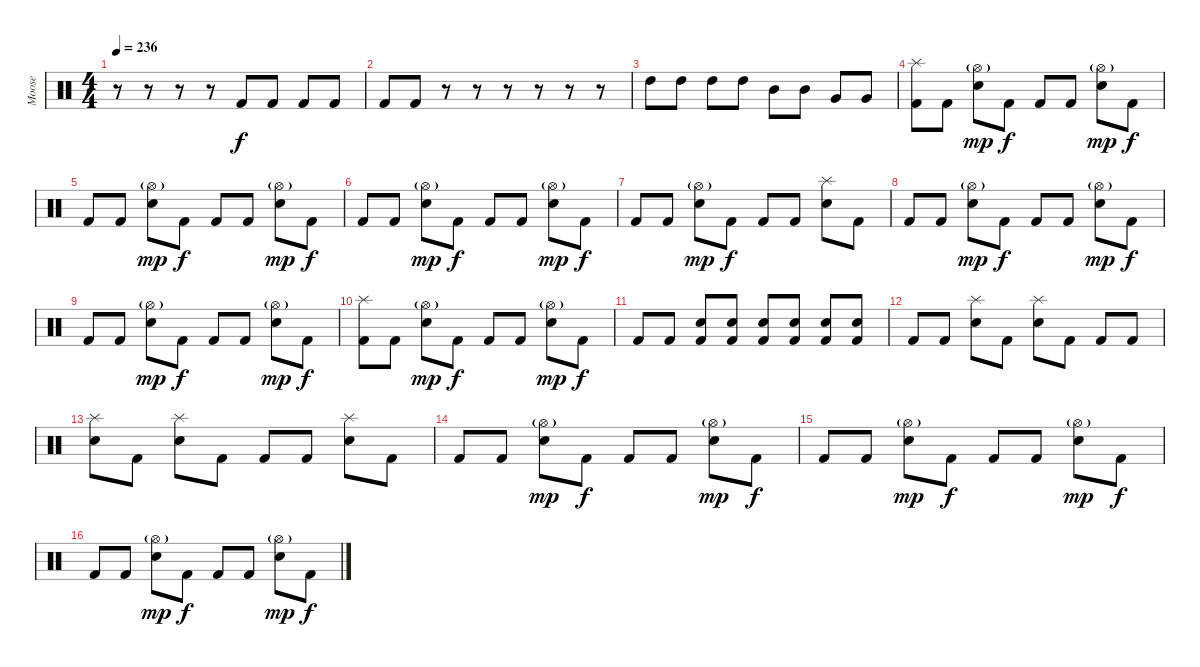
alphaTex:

\track ("Moose" "Moose") {instrument percussion}
\staff {score}
\articulation defaults
\ts (4 4)
\tempo 236
\clef neutral
\ks c
r.8{dy f} r.8 r.8 r.8 "Kick (hit) 2".8 "Kick (hit) 2".8 "Kick (hit) 2".8 "Kick (hit) 2".8 |
"Kick (hit) 2".8 "Kick (hit) 2".8 r.8 r.8 r.8 r.8 r.8 r.8 |
"High Tom (hit)".8 "High Tom (hit)".8 "High Tom (hit)".8 "High Tom (hit)".8 "Mid Tom (hit)".8 "Mid Tom (hit)".8 "Very Low Tom (hit)".8 "Very Low Tom (hit)".8 |
("Splash (hit)" "Kick (hit) 2").8 "Kick (hit) 2".8 ("Hi-Hat (open)"{g} "Electric Snare (hit)").8{dy mp} "Kick (hit) 2".8{dy f} "Kick (hit) 2".8 "Kick (hit) 2".8 ("Hi-Hat (open)"{g} "Electric Snare (hit)").8{dy mp} "Kick (hit) 2".8{dy f} |
"Kick (hit) 2".8 "Kick (hit) 2".8 ("Hi-Hat (open)"{g} "Electric Snare (hit)").8{dy mp} "Kick (hit) 2".8{dy f} "Kick (hit) 2".8 "Kick (hit) 2".8 ("Hi-Hat (open)"{g} "Electric Snare (hit)").8{dy mp} "Kick (hit) 2".8{dy f} |
"Kick (hit) 2".8 "Kick (hit) 2".8 ("Hi-Hat (open)"{g} "Electric Snare (hit)").8{dy mp} "Kick (hit) 2".8{dy f} "Kick (hit) 2".8 "Kick (hit) 2".8 ("Hi-Hat (open)"{g} "Electric Snare (hit)").8{dy mp} "Kick (hit) 2".8{dy f} |
"Kick (hit) 2".8 "Kick (hit) 2".8 ("Hi-Hat (open)"{g} "Electric Snare (hit)").8{dy mp} "Kick (hit) 2".8{dy f} "Kick (hit) 2".8 "Kick (hit) 2".8 ("Splash (hit)" "Electric Snare (hit)").8 "Kick (hit) 2".8 |
"Kick (hit) 2".8 "Kick (hit) 2".8 ("Hi-Hat (open)"{g} "Electric Snare (hit)").8{dy mp} "Kick (hit) 2".8{dy f} "Kick (hit) 2".8 "Kick (hit) 2".8 ("Hi-Hat (open)"{g} "Electric Snare (hit)").8{dy mp} "Kick (hit) 2".8{dy f} |
"Kick (hit) 2".8 "Kick (hit) 2".8 ("Hi-Hat (open)"{g} "Electric Snare (hit)").8{dy mp} "Kick (hit) 2".8{dy f} "Kick (hit) 2".8 "Kick (hit) 2".8 ("Hi-Hat (open)"{g} "Electric Snare (hit)").8{dy mp} "Kick (hit) 2".8{dy f} |
("Splash (hit)" "Kick (hit) 2").8 "Kick (hit) 2".8 ("Hi-Hat (open)"{g} "Electric Snare (hit)").8{dy mp} "Kick (hit) 2".8{dy f} "Kick (hit) 2".8 "Kick (hit) 2".8 ("Hi-Hat (open)"{g} "Electric Snare (hit)").8{dy mp} "Kick (hit) 2".8{dy f} |
"Kick (hit) 2".8 "Kick (hit) 2".8 ("Electric Snare (hit)" "Kick (hit) 2").8 ("Electric Snare (hit)" "Kick (hit) 2").8 ("Electric Snare (hit)" "Kick (hit) 2").8 ("Electric Snare (hit)" "Kick (hit) 2").8 ("Electric Snare (hit)" "Kick (hit) 2").8 ("Electric Snare (hit)" "Kick (hit) 2").8 |
"Kick (hit) 2".8 "Kick (hit) 2".8 ("Splash (hit)" "Electric Snare (hit)").8 "Kick (hit) 2".8 ("Splash (hit)" "Electric Snare (hit)").8 "Kick (hit) 2".8 "Kick (hit) 2".8 "Kick (hit) 2".8 |
("Splash (hit)" "Electric Snare (hit)").8 "Kick (hit) 2".8 ("Splash (hit)" "Electric Snare (hit)").8 "Kick (hit) 2".8 "Kick (hit) 2".8 "Kick (hit) 2".8 ("Splash (hit)" "Electric Snare (hit)").8 "Kick (hit) 2".8 |
"Kick (hit) 2".8 "Kick (hit) 2".8 ("Hi-Hat (open)"{g} "Electric Snare (hit)").8{dy mp} "Kick (hit) 2".8{dy f} "Kick (hit) 2".8 "Kick (hit) 2".8 ("Hi-Hat (open)"{g} "Electric Snare (hit)").8{dy mp} "Kick (hit) 2".8{dy f} |
"Kick (hit) 2".8 "Kick (hit) 2".8 ("Hi-Hat (open)"{g} "Electric Snare (hit)").8{dy mp} "Kick (hit) 2".8{dy f} "Kick (hit) 2".8 "Kick (hit) 2".8 ("Hi-Hat (open)"{g} "Electric Snare (hit)").8{dy mp} "Kick (hit) 2".8{dy f} |
"Kick (hit) 2".8 "Kick (hit) 2".8 ("Hi-Hat (open)"{g} "Electric Snare (hit)").8{dy mp} "Kick (hit) 2".8{dy f} "Kick (hit) 2".8 "Kick (hit) 2".8 ("Hi-Hat (open)"{g} "Electric Snare (hit)").8{dy mp} "Kick (hit) 2".8{dy f}
